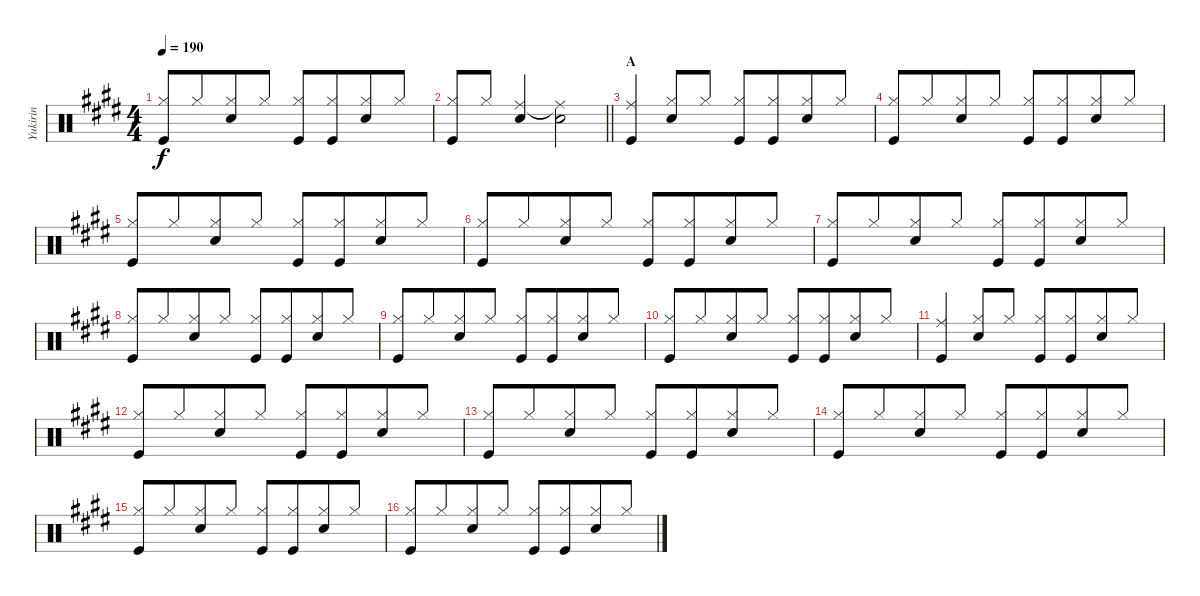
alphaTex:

\track ("Yukirin" "Yukirin") {mute instrument percussion}
\staff {score}
\articulation defaults
\ts (4 4)
\tempo 190
\clef neutral
\ks e
("Hi-Hat (closed)" "Kick (hit)").8{dy f beam Up} "Hi-Hat (closed)".8{beam Up beam merge} ("Hi-Hat (closed)" "Snare (hit) 2").8{beam Up} "Hi-Hat (closed)".8{beam Up} ("Hi-Hat (closed)" "Kick (hit)").8{beam Up} ("Hi-Hat (closed)" "Kick (hit)").8{beam Up beam merge} ("Hi-Hat (closed)" "Snare (hit) 2").8{beam Up} "Hi-Hat (closed)".8{beam Up} |
\barLineRight lightlight
("Hi-Hat (closed)" "Kick (hit)").8{beam Up} "Hi-Hat (closed)".8{beam Up} ("Ride (middle)" "Snare (hit) 2").4{beam Up} ("Ride (middle)"{t} "Snare (hit) 2").2 |
\section ("" "A")
("Ride (middle)" "Kick (hit)").4{beam Up} ("Hi-Hat (closed)" "Snare (hit) 2").8{beam Up} "Hi-Hat (closed)".8{beam Up} ("Hi-Hat (closed)" "Kick (hit)").8{beam Up} ("Hi-Hat (closed)" "Kick (hit)").8{beam Up beam merge} ("Hi-Hat (closed)" "Snare (hit) 2").8{beam Up} "Hi-Hat (closed)".8{beam Up} |
("Hi-Hat (closed)" "Kick (hit)").8{beam Up} "Hi-Hat (closed)".8{beam Up beam merge} ("Hi-Hat (closed)" "Snare (hit) 2").8{beam Up} "Hi-Hat (closed)".8{beam Up} ("Hi-Hat (closed)" "Kick (hit)").8{beam Up} ("Hi-Hat (closed)" "Kick (hit)").8{beam Up beam merge} ("Hi-Hat (closed)" "Snare (hit) 2").8{beam Up} "Hi-Hat (closed)".8{beam Up} |
("Hi-Hat (closed)" "Kick (hit)").8{beam Up} "Hi-Hat (closed)".8{beam Up beam merge} ("Hi-Hat (closed)" "Snare (hit) 2").8{beam Up} "Hi-Hat (closed)".8{beam Up} ("Hi-Hat (closed)" "Kick (hit)").8{beam Up} ("Hi-Hat (closed)" "Kick (hit)").8{beam Up beam merge} ("Hi-Hat (closed)" "Snare (hit) 2").8{beam Up} "Hi-Hat (closed)".8{beam Up} |
("Hi-Hat (closed)" "Kick (hit)").8{beam Up} "Hi-Hat (closed)".8{beam Up beam merge} ("Hi-Hat (closed)" "Snare (hit) 2").8{beam Up} "Hi-Hat (closed)".8{beam Up} ("Hi-Hat (closed)" "Kick (hit)").8{beam Up} ("Hi-Hat (closed)" "Kick (hit)").8{beam Up beam merge} ("Hi-Hat (closed)" "Snare (hit) 2").8{beam Up} "Hi-Hat (closed)".8{beam Up} |
("Hi-Hat (closed)" "Kick (hit)").8{beam Up} "Hi-Hat (closed)".8{beam Up beam merge} ("Hi-Hat (closed)" "Snare (hit) 2").8{beam Up} "Hi-Hat (closed)".8{beam Up} ("Hi-Hat (closed)" "Kick (hit)").8{beam Up} ("Hi-Hat (closed)" "Kick (hit)").8{beam Up beam merge} ("Hi-Hat (closed)" "Snare (hit) 2").8{beam Up} "Hi-Hat (closed)".8{beam Up} |
("Hi-Hat (closed)" "Kick (hit)").8{beam Up} "Hi-Hat (closed)".8{beam Up beam merge} ("Hi-Hat (closed)" "Snare (hit) 2").8{beam Up} "Hi-Hat (closed)".8{beam Up} ("Hi-Hat (closed)" "Kick (hit)").8{beam Up} ("Hi-Hat (closed)" "Kick (hit)").8{beam Up beam merge} ("Hi-Hat (closed)" "Snare (hit) 2").8{beam Up} "Hi-Hat (closed)".8{beam Up} |
("Hi-Hat (closed)" "Kick (hit)").8{beam Up} "Hi-Hat (closed)".8{beam Up beam merge} ("Hi-Hat (closed)" "Snare (hit) 2").8{beam Up} "Hi-Hat (closed)".8{beam Up} ("Hi-Hat (closed)" "Kick (hit)").8{beam Up} ("Hi-Hat (closed)" "Kick (hit)").8{beam Up beam merge} ("Hi-Hat (closed)" "Snare (hit) 2").8{beam Up} "Hi-Hat (closed)".8{beam Up} |
("Hi-Hat (closed)" "Kick (hit)").8{beam Up} "Hi-Hat (closed)".8{beam Up beam merge} ("Hi-Hat (closed)" "Snare (hit) 2").8{beam Up} "Hi-Hat (closed)".8{beam Up} ("Hi-Hat (closed)" "Kick (hit)").8{beam Up} ("Hi-Hat (closed)" "Kick (hit)").8{beam Up beam merge} ("Hi-Hat (closed)" "Snare (hit) 2").8{beam Up} "Hi-Hat (closed)".8{beam Up} |
("Ride (middle)" "Kick (hit)").4{beam Up} ("Hi-Hat (closed)" "Snare (hit) 2").8{beam Up} "Hi-Hat (closed)".8{beam Up} ("Hi-Hat (closed)" "Kick (hit)").8{beam Up} ("Hi-Hat (closed)" "Kick (hit)").8{beam Up beam merge} ("Hi-Hat (closed)" "Snare (hit) 2").8{beam Up} "Hi-Hat (closed)".8{beam Up} |
("Hi-Hat (closed)" "Kick (hit)").8{beam Up} "Hi-Hat (closed)".8{beam Up beam merge} ("Hi-Hat (closed)" "Snare (hit) 2").8{beam Up} "Hi-Hat (closed)".8{beam Up} ("Hi-Hat (closed)" "Kick (hit)").8{beam Up} ("Hi-Hat (closed)" "Kick (hit)").8{beam Up beam merge} ("Hi-Hat (closed)" "Snare (hit) 2").8{beam Up} "Hi-Hat (closed)".8{beam Up} |
("Hi-Hat (closed)" "Kick (hit)").8{beam Up} "Hi-Hat (closed)".8{beam Up beam merge} ("Hi-Hat (closed)" "Snare (hit) 2").8{beam Up} "Hi-Hat (closed)".8{beam Up} ("Hi-Hat (closed)" "Kick (hit)").8{beam Up} ("Hi-Hat (closed)" "Kick (hit)").8{beam Up beam merge} ("Hi-Hat (closed)" "Snare (hit) 2").8{beam Up} "Hi-Hat (closed)".8{beam Up} |
("Hi-Hat (closed)" "Kick (hit)").8{beam Up} "Hi-Hat (closed)".8{beam Up beam merge} ("Hi-Hat (closed)" "Snare (hit) 2").8{beam Up} "Hi-Hat (closed)".8{beam Up} ("Hi-Hat (closed)" "Kick (hit)").8{beam Up} ("Hi-Hat (closed)" "Kick (hit)").8{beam Up beam merge} ("Hi-Hat (closed)" "Snare (hit) 2").8{beam Up} "Hi-Hat (closed)".8{beam Up} |
("Hi-Hat (closed)" "Kick (hit)").8{beam Up} "Hi-Hat (closed)".8{beam Up beam merge} ("Hi-Hat (closed)" "Snare (hit) 2").8{beam Up} "Hi-Hat (closed)".8{beam Up} ("Hi-Hat (closed)" "Kick (hit)").8{beam Up} ("Hi-Hat (closed)" "Kick (hit)").8{beam Up beam merge} ("Hi-Hat (closed)" "Snare (hit) 2").8{beam Up} "Hi-Hat (closed)".8{beam Up} |
("Hi-Hat (closed)" "Kick (hit)").8{beam Up} "Hi-Hat (closed)".8{beam Up beam merge} ("Hi-Hat (closed)" "Snare (hit) 2").8{beam Up} "Hi-Hat (closed)".8{beam Up} ("Hi-Hat (closed)" "Kick (hit)").8{beam Up} ("Hi-Hat (closed)" "Kick (hit)").8{beam Up beam merge} ("Hi-Hat (closed)" "Snare (hit) 2").8{beam Up} "Hi-Hat (closed)".8{beam Up}
